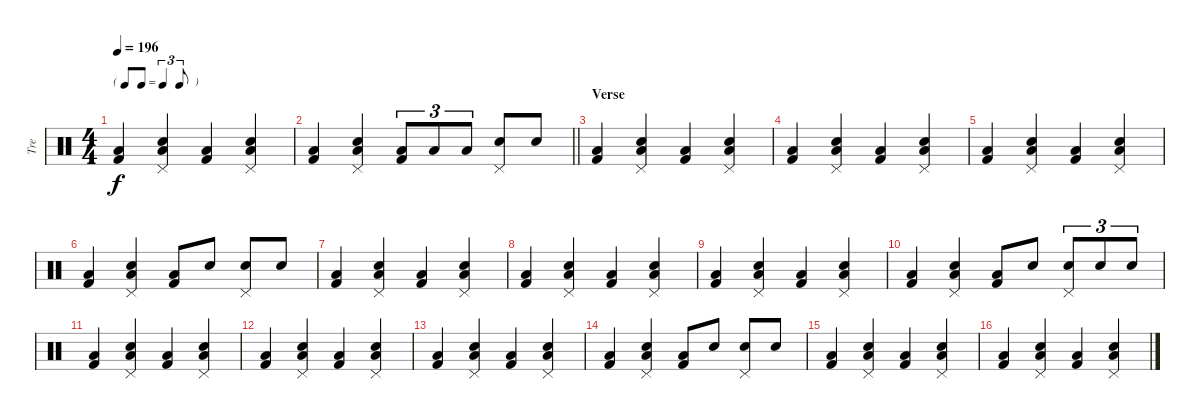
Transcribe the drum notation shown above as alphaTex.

\track ("Tre" "Tre") {instrument percussion}
\staff {score}
\articulation defaults
\ts (4 4)
\tf triplet8th
\tempo 196
\clef neutral
\ks c
("Low Floor Tom (hit)" "Kick (hit) 2").4{dy f} ("Snare (hit) 2" "Low Floor Tom (hit)" "Pedal Hi-Hat (hit)").4 ("Low Floor Tom (hit)" "Kick (hit) 2").4 ("Snare (hit) 2" "Low Floor Tom (hit)" "Pedal Hi-Hat (hit)").4 |
\barLineRight lightlight
("Low Floor Tom (hit)" "Kick (hit) 2").4 ("Snare (hit) 2" "Low Floor Tom (hit)" "Pedal Hi-Hat (hit)").4 ("Low Tom (hit)" "Kick (hit) 2").8{tu (3 2)} "Low Tom (hit)".8{tu (3 2)} "Low Tom (hit)".8{tu (3 2)} ("Snare (hit) 2" "Pedal Hi-Hat (hit)").8 "Snare (hit) 2".8 |
\section ("" "Verse")
("Low Floor Tom (hit)" "Kick (hit) 2").4 ("Snare (hit) 2" "Low Floor Tom (hit)" "Pedal Hi-Hat (hit)").4 ("Low Floor Tom (hit)" "Kick (hit) 2").4 ("Snare (hit) 2" "Low Floor Tom (hit)" "Pedal Hi-Hat (hit)").4 |
("Low Floor Tom (hit)" "Kick (hit) 2").4 ("Snare (hit) 2" "Low Floor Tom (hit)" "Pedal Hi-Hat (hit)").4 ("Low Floor Tom (hit)" "Kick (hit) 2").4 ("Snare (hit) 2" "Low Floor Tom (hit)" "Pedal Hi-Hat (hit)").4 |
("Low Floor Tom (hit)" "Kick (hit) 2").4 ("Snare (hit) 2" "Low Floor Tom (hit)" "Pedal Hi-Hat (hit)").4 ("Low Floor Tom (hit)" "Kick (hit) 2").4 ("Snare (hit) 2" "Low Floor Tom (hit)" "Pedal Hi-Hat (hit)").4 |
("Low Floor Tom (hit)" "Kick (hit) 2").4 ("Snare (hit) 2" "Low Floor Tom (hit)" "Pedal Hi-Hat (hit)").4 ("Low Floor Tom (hit)" "Kick (hit) 2").8 "Snare (hit) 2".8 ("Snare (hit) 2" "Pedal Hi-Hat (hit)").8 "Snare (hit) 2".8 |
("Low Floor Tom (hit)" "Kick (hit) 2").4 ("Snare (hit) 2" "Low Floor Tom (hit)" "Pedal Hi-Hat (hit)").4 ("Low Floor Tom (hit)" "Kick (hit) 2").4 ("Snare (hit) 2" "Low Floor Tom (hit)" "Pedal Hi-Hat (hit)").4 |
("Low Floor Tom (hit)" "Kick (hit) 2").4 ("Snare (hit) 2" "Low Floor Tom (hit)" "Pedal Hi-Hat (hit)").4 ("Low Floor Tom (hit)" "Kick (hit) 2").4 ("Snare (hit) 2" "Low Floor Tom (hit)" "Pedal Hi-Hat (hit)").4 |
("Low Floor Tom (hit)" "Kick (hit) 2").4 ("Snare (hit) 2" "Low Floor Tom (hit)" "Pedal Hi-Hat (hit)").4 ("Low Floor Tom (hit)" "Kick (hit) 2").4 ("Snare (hit) 2" "Low Floor Tom (hit)" "Pedal Hi-Hat (hit)").4 |
("Low Floor Tom (hit)" "Kick (hit) 2").4 ("Snare (hit) 2" "Low Floor Tom (hit)" "Pedal Hi-Hat (hit)").4 ("Low Floor Tom (hit)" "Kick (hit) 2").8 "Snare (hit) 2".8 ("Snare (hit) 2" "Pedal Hi-Hat (hit)").8{tu (3 2)} "Snare (hit) 2".8{tu (3 2)} "Snare (hit) 2".8{tu (3 2)} |
("Low Floor Tom (hit)" "Kick (hit) 2").4 ("Snare (hit) 2" "Low Floor Tom (hit)" "Pedal Hi-Hat (hit)").4 ("Low Floor Tom (hit)" "Kick (hit) 2").4 ("Snare (hit) 2" "Low Floor Tom (hit)" "Pedal Hi-Hat (hit)").4 |
("Low Floor Tom (hit)" "Kick (hit) 2").4 ("Snare (hit) 2" "Low Floor Tom (hit)" "Pedal Hi-Hat (hit)").4 ("Low Floor Tom (hit)" "Kick (hit) 2").4 ("Snare (hit) 2" "Low Floor Tom (hit)" "Pedal Hi-Hat (hit)").4 |
("Low Floor Tom (hit)" "Kick (hit) 2").4 ("Snare (hit) 2" "Low Floor Tom (hit)" "Pedal Hi-Hat (hit)").4 ("Low Floor Tom (hit)" "Kick (hit) 2").4 ("Snare (hit) 2" "Low Floor Tom (hit)" "Pedal Hi-Hat (hit)").4 |
("Low Floor Tom (hit)" "Kick (hit) 2").4 ("Snare (hit) 2" "Low Floor Tom (hit)" "Pedal Hi-Hat (hit)").4 ("Low Floor Tom (hit)" "Kick (hit) 2").8 "Snare (hit) 2".8 ("Snare (hit) 2" "Pedal Hi-Hat (hit)").8 "Snare (hit) 2".8 |
("Low Floor Tom (hit)" "Kick (hit) 2").4 ("Snare (hit) 2" "Low Floor Tom (hit)" "Pedal Hi-Hat (hit)").4 ("Low Floor Tom (hit)" "Kick (hit) 2").4 ("Snare (hit) 2" "Low Floor Tom (hit)" "Pedal Hi-Hat (hit)").4 |
("Low Floor Tom (hit)" "Kick (hit) 2").4 ("Snare (hit) 2" "Low Floor Tom (hit)" "Pedal Hi-Hat (hit)").4 ("Low Floor Tom (hit)" "Kick (hit) 2").4 ("Snare (hit) 2" "Low Floor Tom (hit)" "Pedal Hi-Hat (hit)").4
